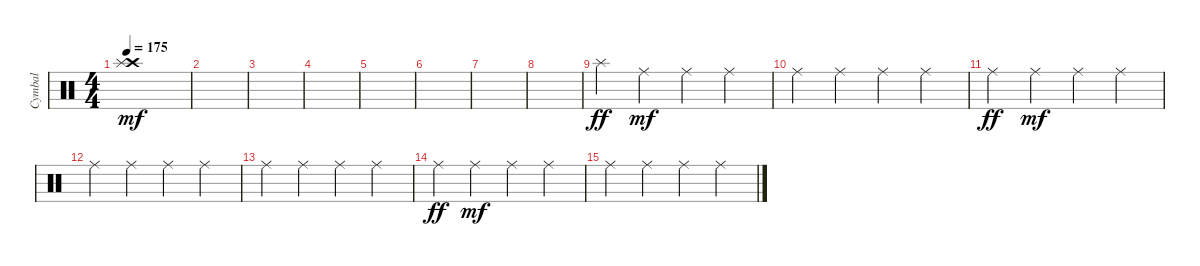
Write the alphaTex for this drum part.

\track ("Cymbal" "Cymbal") {instrument percussion}
\staff {score}
\articulation defaults
\ts (4 4)
\tempo 175
\clef neutral
\ks c
("Crash high (hit)" "Splash (hit)").1{dy mf} |
|
|
|
|
|
|
|
"Splash (hit)".4{dy ff} "Ride (middle)".4{dy mf} "Ride (middle)".4 "Ride (middle)".4 |
"Ride (middle)".4 "Ride (middle)".4 "Ride (middle)".4 "Ride (middle)".4 |
"Ride (middle)".4{dy ff} "Ride (middle)".4{dy mf} "Ride (middle)".4 "Ride (middle)".4 |
"Ride (middle)".4 "Ride (middle)".4 "Ride (middle)".4 "Ride (middle)".4 |
"Ride (middle)".4 "Ride (middle)".4 "Ride (middle)".4 "Ride (middle)".4 |
"Ride (middle)".4{dy ff} "Ride (middle)".4{dy mf} "Ride (middle)".4 "Ride (middle)".4 |
"Ride (middle)".4 "Ride (middle)".4 "Ride (middle)".4 "Ride (middle)".4
